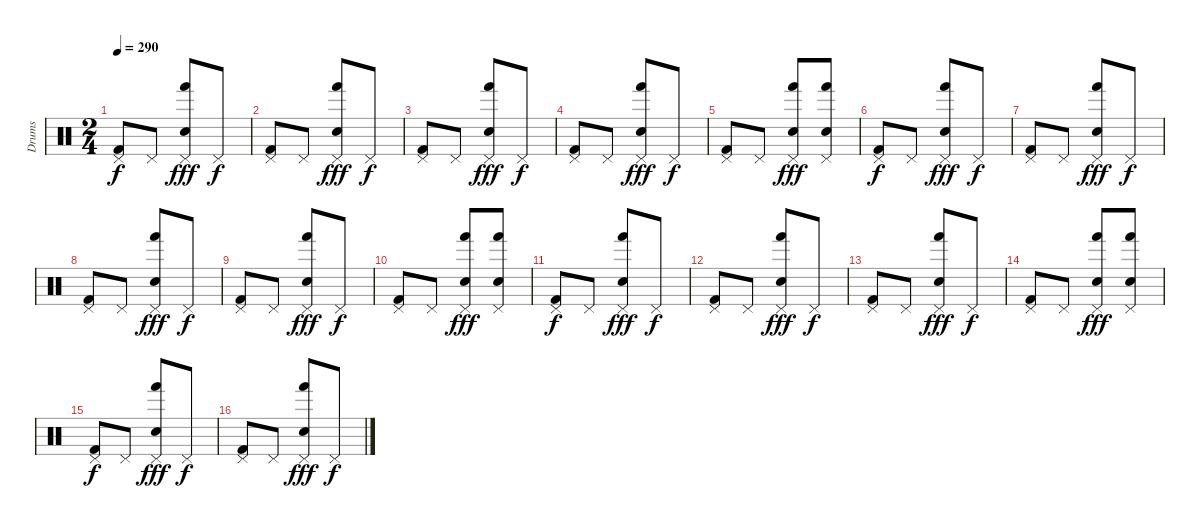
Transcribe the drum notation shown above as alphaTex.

\track ("Drums" "Drums") {instrument percussion}
\staff {score}
\articulation defaults
\ts (2 4)
\tempo 290
\clef neutral
\ks c
("Pedal Hi-Hat (hit)" "Kick (hit) 2").8{dy f} "Pedal Hi-Hat (hit)".8 ("Pedal Hi-Hat (hit)" "Hand (hit)" "Electric Snare (hit)").8{dy fff} "Pedal Hi-Hat (hit)".8{dy f} |
("Pedal Hi-Hat (hit)" "Kick (hit) 2").8 "Pedal Hi-Hat (hit)".8 ("Pedal Hi-Hat (hit)" "Hand (hit)" "Electric Snare (hit)").8{dy fff} "Pedal Hi-Hat (hit)".8{dy f} |
("Pedal Hi-Hat (hit)" "Kick (hit) 2").8 "Pedal Hi-Hat (hit)".8 ("Pedal Hi-Hat (hit)" "Hand (hit)" "Electric Snare (hit)").8{dy fff} "Pedal Hi-Hat (hit)".8{dy f} |
("Pedal Hi-Hat (hit)" "Kick (hit) 2").8 "Pedal Hi-Hat (hit)".8 ("Pedal Hi-Hat (hit)" "Hand (hit)" "Electric Snare (hit)").8{dy fff} "Pedal Hi-Hat (hit)".8{dy f} |
("Pedal Hi-Hat (hit)" "Kick (hit) 2").8 "Pedal Hi-Hat (hit)".8 ("Pedal Hi-Hat (hit)" "Hand (hit)" "Electric Snare (hit)").8{dy fff} ("Pedal Hi-Hat (hit)" "Hand (hit)" "Electric Snare (hit)").8 |
("Pedal Hi-Hat (hit)" "Kick (hit) 2").8{dy f} "Pedal Hi-Hat (hit)".8 ("Pedal Hi-Hat (hit)" "Hand (hit)" "Electric Snare (hit)").8{dy fff} "Pedal Hi-Hat (hit)".8{dy f} |
("Pedal Hi-Hat (hit)" "Kick (hit) 2").8 "Pedal Hi-Hat (hit)".8 ("Pedal Hi-Hat (hit)" "Hand (hit)" "Electric Snare (hit)").8{dy fff} "Pedal Hi-Hat (hit)".8{dy f} |
("Pedal Hi-Hat (hit)" "Kick (hit) 2").8 "Pedal Hi-Hat (hit)".8 ("Pedal Hi-Hat (hit)" "Hand (hit)" "Electric Snare (hit)").8{dy fff} "Pedal Hi-Hat (hit)".8{dy f} |
("Pedal Hi-Hat (hit)" "Kick (hit) 2").8 "Pedal Hi-Hat (hit)".8 ("Pedal Hi-Hat (hit)" "Hand (hit)" "Electric Snare (hit)").8{dy fff} "Pedal Hi-Hat (hit)".8{dy f} |
("Pedal Hi-Hat (hit)" "Kick (hit) 2").8 "Pedal Hi-Hat (hit)".8 ("Pedal Hi-Hat (hit)" "Hand (hit)" "Electric Snare (hit)").8{dy fff} ("Pedal Hi-Hat (hit)" "Hand (hit)" "Electric Snare (hit)").8 |
("Pedal Hi-Hat (hit)" "Kick (hit) 2").8{dy f} "Pedal Hi-Hat (hit)".8 ("Pedal Hi-Hat (hit)" "Hand (hit)" "Electric Snare (hit)").8{dy fff} "Pedal Hi-Hat (hit)".8{dy f} |
("Pedal Hi-Hat (hit)" "Kick (hit) 2").8 "Pedal Hi-Hat (hit)".8 ("Pedal Hi-Hat (hit)" "Hand (hit)" "Electric Snare (hit)").8{dy fff} "Pedal Hi-Hat (hit)".8{dy f} |
("Pedal Hi-Hat (hit)" "Kick (hit) 2").8 "Pedal Hi-Hat (hit)".8 ("Pedal Hi-Hat (hit)" "Hand (hit)" "Electric Snare (hit)").8{dy fff} "Pedal Hi-Hat (hit)".8{dy f} |
("Pedal Hi-Hat (hit)" "Kick (hit) 2").8 "Pedal Hi-Hat (hit)".8 ("Pedal Hi-Hat (hit)" "Hand (hit)" "Electric Snare (hit)").8{dy fff} ("Pedal Hi-Hat (hit)" "Hand (hit)" "Electric Snare (hit)").8 |
("Pedal Hi-Hat (hit)" "Kick (hit) 2").8{dy f} "Pedal Hi-Hat (hit)".8 ("Pedal Hi-Hat (hit)" "Hand (hit)" "Electric Snare (hit)").8{dy fff} "Pedal Hi-Hat (hit)".8{dy f} |
("Pedal Hi-Hat (hit)" "Kick (hit) 2").8 "Pedal Hi-Hat (hit)".8 ("Pedal Hi-Hat (hit)" "Hand (hit)" "Electric Snare (hit)").8{dy fff} "Pedal Hi-Hat (hit)".8{dy f}
